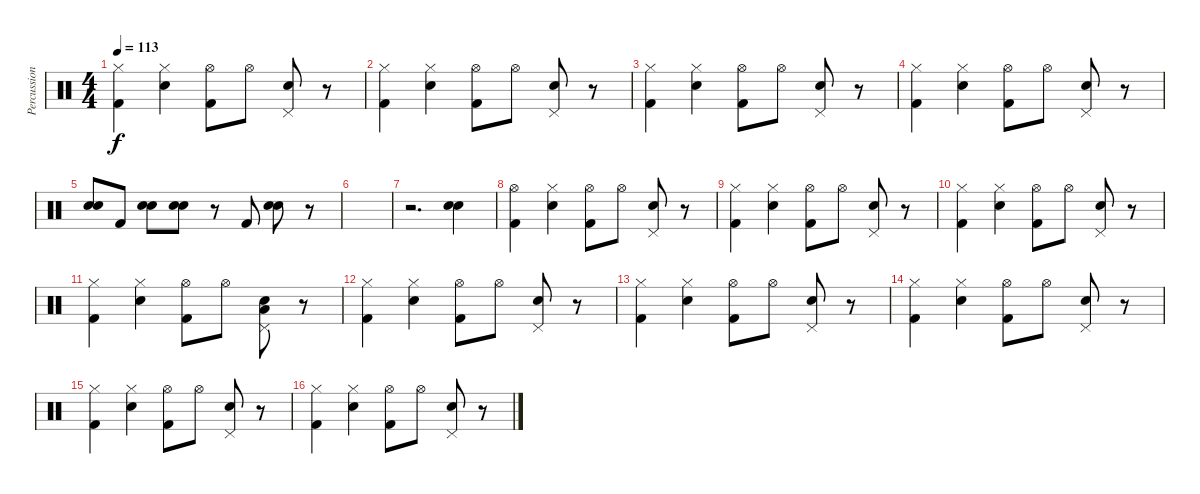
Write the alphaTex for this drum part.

\track ("Percussion" "Percussion") {instrument percussion bank 3}
\staff {score}
\articulation defaults
\ts (4 4)
\tempo 113
\clef neutral
\ks c
("Hi-Hat (closed)" "Kick (hit) 2").4{dy f} ("Hi-Hat (closed)" "Snare (hit) 2").4 ("Hi-Hat (open)" "Kick (hit) 2").8 "Hi-Hat (open)".8 ("Pedal Hi-Hat (hit)" "Snare (hit) 2").8 r.8 |
("Hi-Hat (closed)" "Kick (hit) 2").4 ("Hi-Hat (closed)" "Snare (hit) 2").4 ("Hi-Hat (open)" "Kick (hit) 2").8 "Hi-Hat (open)".8 ("Pedal Hi-Hat (hit)" "Snare (hit) 2").8 r.8 |
("Hi-Hat (closed)" "Kick (hit) 2").4 ("Hi-Hat (closed)" "Snare (hit) 2").4 ("Hi-Hat (open)" "Kick (hit) 2").8 "Hi-Hat (open)".8 ("Pedal Hi-Hat (hit)" "Snare (hit) 2").8 r.8 |
("Hi-Hat (closed)" "Kick (hit) 2").4 ("Hi-Hat (closed)" "Snare (hit) 2").4 ("Hi-Hat (open)" "Kick (hit) 2").8 "Hi-Hat (open)".8 ("Pedal Hi-Hat (hit)" "Snare (hit) 2").8 r.8 |
("Snare (hit) 2" "Snare (hit) 2").8 "Kick (hit) 2".8 ("Snare (hit) 2" "Snare (hit) 2").8 ("Snare (hit) 2" "Snare (hit) 2").8 r.8 "Kick (hit) 2".8 ("Snare (hit) 2" "Snare (hit) 2").8 r.8 |
|
r.2{d} ("Snare (hit) 2" "Snare (hit) 2").4 |
("Hi-Hat (open)" "Kick (hit) 2").4 ("Hi-Hat (closed)" "Snare (hit) 2").4 ("Hi-Hat (open)" "Kick (hit) 2").8 "Hi-Hat (open)".8 ("Pedal Hi-Hat (hit)" "Snare (hit) 2").8 r.8 |
("Hi-Hat (closed)" "Kick (hit) 2").4 ("Hi-Hat (closed)" "Snare (hit) 2").4 ("Hi-Hat (open)" "Kick (hit) 2").8 "Hi-Hat (open)".8 ("Pedal Hi-Hat (hit)" "Snare (hit) 2").8 r.8 |
("Hi-Hat (closed)" "Kick (hit) 2").4 ("Hi-Hat (closed)" "Snare (hit) 2").4 ("Hi-Hat (open)" "Kick (hit) 2").8 "Hi-Hat (open)".8 ("Pedal Hi-Hat (hit)" "Snare (hit) 2").8 r.8 |
("Hi-Hat (closed)" "Kick (hit) 2").4 ("Hi-Hat (closed)" "Snare (hit) 2").4 ("Hi-Hat (open)" "Kick (hit) 2").8 "Hi-Hat (open)".8 ("Pedal Hi-Hat (hit)" "Low Tom (hit)" "Snare (hit) 2").8 r.8 |
("Hi-Hat (closed)" "Kick (hit) 2").4 ("Hi-Hat (closed)" "Snare (hit) 2").4 ("Hi-Hat (open)" "Kick (hit) 2").8 "Hi-Hat (open)".8 ("Pedal Hi-Hat (hit)" "Snare (hit) 2").8 r.8 |
("Hi-Hat (closed)" "Kick (hit) 2").4 ("Hi-Hat (closed)" "Snare (hit) 2").4 ("Hi-Hat (open)" "Kick (hit) 2").8 "Hi-Hat (open)".8 ("Pedal Hi-Hat (hit)" "Snare (hit) 2").8 r.8 |
("Hi-Hat (closed)" "Kick (hit) 2").4 ("Hi-Hat (closed)" "Snare (hit) 2").4 ("Hi-Hat (open)" "Kick (hit) 2").8 "Hi-Hat (open)".8 ("Pedal Hi-Hat (hit)" "Snare (hit) 2").8 r.8 |
("Hi-Hat (closed)" "Kick (hit) 2").4 ("Hi-Hat (closed)" "Snare (hit) 2").4 ("Hi-Hat (open)" "Kick (hit) 2").8 "Hi-Hat (open)".8 ("Pedal Hi-Hat (hit)" "Snare (hit) 2").8 r.8 |
("Hi-Hat (closed)" "Kick (hit) 2").4 ("Hi-Hat (closed)" "Snare (hit) 2").4 ("Hi-Hat (open)" "Kick (hit) 2").8 "Hi-Hat (open)".8 ("Pedal Hi-Hat (hit)" "Snare (hit) 2").8 r.8
